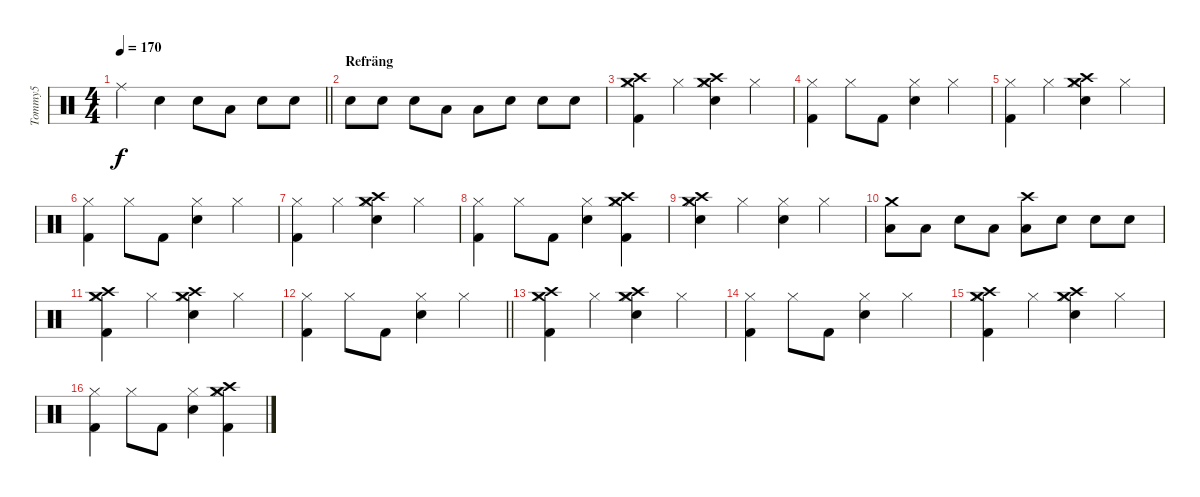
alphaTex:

\track ("Tommy5" "Tommy5") {instrument percussion}
\staff {score}
\articulation defaults
\ts (4 4)
\tempo 170
\clef neutral
\barLineRight lightlight
\ks c "Ride (middle)".4{dy f} "Electric Snare (hit)".4 "Snare (hit) 2".8 "Low Tom (hit)".8 "Snare (hit) 2".8 "Electric Snare (hit)".8
|
\section ("" "Refräng")
"Electric Snare (hit)".8 "Snare (hit) 2".8 "Snare (hit) 2".8 "Low Tom (hit)".8 "Low Tom (hit)".8 "Snare (hit) 2".8 "Snare (hit) 2".8 "Electric Snare (hit)".8 |
("Hi-Hat (closed)" "Kick (hit) 2" "Crash high (hit)" "Crash medium (hit)").4 "Hi-Hat (closed)".4 ("Hi-Hat (closed)" "Electric Snare (hit)" "Crash high (hit)" "Crash medium (hit)").4 "Hi-Hat (closed)".4 |
("Hi-Hat (closed)" "Kick (hit) 2").4 "Hi-Hat (closed)".8 "Kick (hit) 2".8 ("Hi-Hat (closed)" "Electric Snare (hit)").4 "Hi-Hat (closed)".4 |
("Hi-Hat (closed)" "Kick (hit) 2").4 "Hi-Hat (closed)".4 ("Hi-Hat (closed)" "Electric Snare (hit)" "Crash high (hit)" "Crash medium (hit)").4 "Hi-Hat (closed)".4 |
("Hi-Hat (closed)" "Kick (hit) 2").4 "Hi-Hat (closed)".8 "Kick (hit) 2".8 ("Hi-Hat (closed)" "Electric Snare (hit)").4 "Hi-Hat (closed)".4 |
("Hi-Hat (closed)" "Kick (hit) 2").4 "Hi-Hat (closed)".4 ("Hi-Hat (closed)" "Electric Snare (hit)" "Crash high (hit)" "Crash medium (hit)").4 "Hi-Hat (closed)".4 |
("Hi-Hat (closed)" "Kick (hit) 2").4 "Hi-Hat (closed)".8 "Kick (hit) 2".8 ("Hi-Hat (closed)" "Electric Snare (hit)").4 ("Hi-Hat (closed)" "Kick (hit) 2" "Crash high (hit)" "Crash medium (hit)").4 |
("Hi-Hat (closed)" "Electric Snare (hit)" "Crash high (hit)" "Crash medium (hit)").4 "Hi-Hat (closed)".4 ("Hi-Hat (closed)" "Electric Snare (hit)").4 "Hi-Hat (closed)".4 |
("Low Tom (hit)" "Crash medium (hit)").8 "Low Tom (hit)".8 "Electric Snare (hit)".8 "Low Tom (hit)".8 ("Low Tom (hit)" "Crash high (hit)").8 "Snare (hit) 2".8 "Electric Snare (hit)".8 "Snare (hit) 2".8 |
("Hi-Hat (closed)" "Kick (hit) 2" "Crash high (hit)" "Crash medium (hit)").4 "Hi-Hat (closed)".4 ("Hi-Hat (closed)" "Electric Snare (hit)" "Crash high (hit)" "Crash medium (hit)").4 "Hi-Hat (closed)".4 |
\barLineRight lightlight
("Hi-Hat (closed)" "Kick (hit) 2").4 "Hi-Hat (closed)".8 "Kick (hit) 2".8 ("Hi-Hat (closed)" "Electric Snare (hit)").4 "Hi-Hat (closed)".4 |
("Hi-Hat (closed)" "Kick (hit) 2" "Crash high (hit)" "Crash medium (hit)").4 "Hi-Hat (closed)".4 ("Hi-Hat (closed)" "Electric Snare (hit)" "Crash high (hit)" "Crash medium (hit)").4 "Hi-Hat (closed)".4 |
("Hi-Hat (closed)" "Kick (hit) 2").4 "Hi-Hat (closed)".8 "Kick (hit) 2".8 ("Hi-Hat (closed)" "Electric Snare (hit)").4 "Hi-Hat (closed)".4 |
("Hi-Hat (closed)" "Kick (hit) 2" "Crash high (hit)" "Crash medium (hit)").4 "Hi-Hat (closed)".4 ("Hi-Hat (closed)" "Electric Snare (hit)" "Crash high (hit)" "Crash medium (hit)").4 "Hi-Hat (closed)".4 |
("Hi-Hat (closed)" "Kick (hit) 2").4 "Hi-Hat (closed)".8 "Kick (hit) 2".8 ("Hi-Hat (closed)" "Electric Snare (hit)").4 ("Hi-Hat (closed)" "Kick (hit) 2" "Crash high (hit)" "Crash medium (hit)").4
